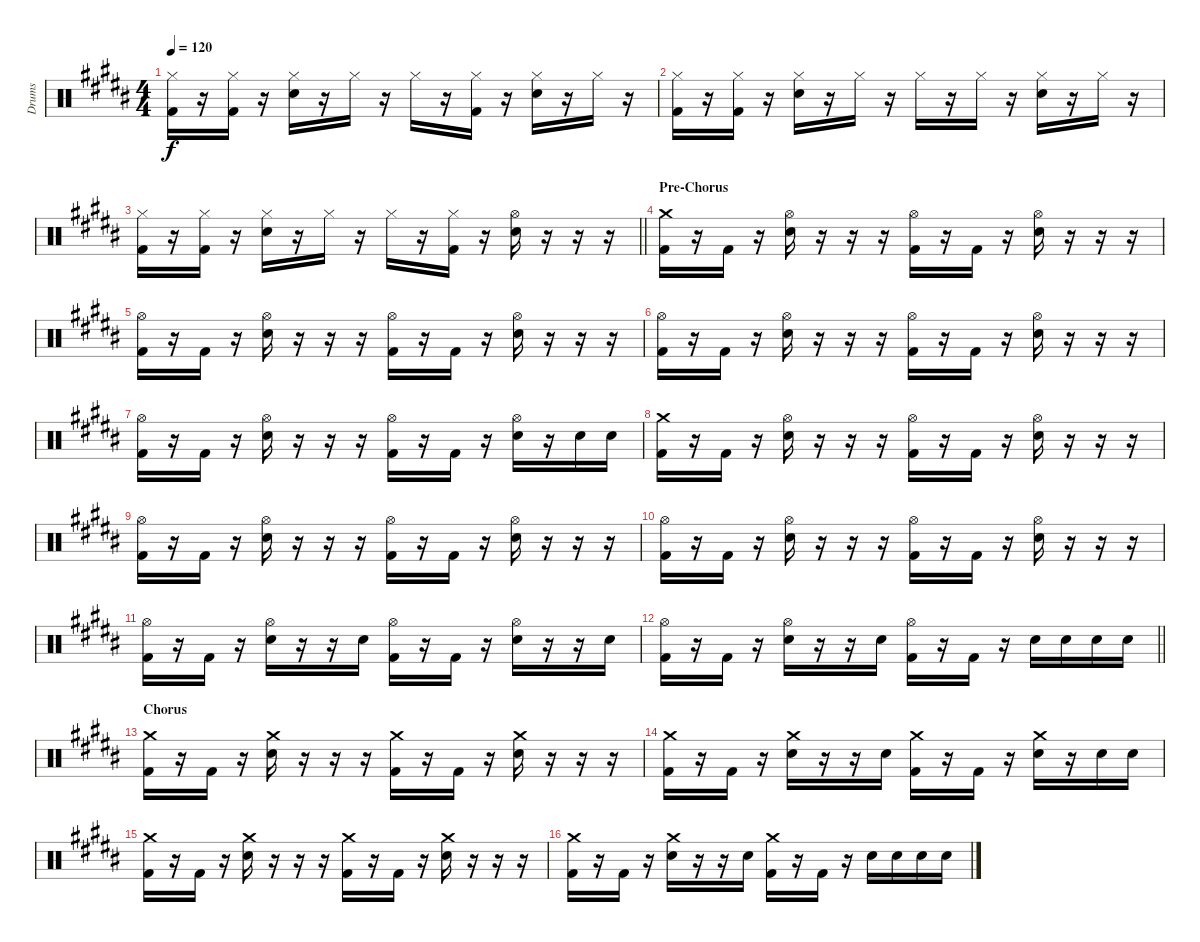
\track ("Drums" "Drums") {instrument percussion}
\staff {score}
\articulation defaults
\ts (4 4)
\tempo 120
\clef neutral
\ks b
("Hi-Hat (closed)" "Kick (hit) 2").16{dy f} r.16 ("Hi-Hat (closed)" "Kick (hit) 2").16 r.16 ("Hi-Hat (closed)" "Snare (hit) 2").16 r.16 "Hi-Hat (closed)".16 r.16 "Hi-Hat (closed)".16 r.16 ("Hi-Hat (closed)" "Kick (hit) 2").16 r.16 ("Hi-Hat (closed)" "Snare (hit) 2").16 r.16 "Hi-Hat (closed)".16 r.16 |
("Hi-Hat (closed)" "Kick (hit) 2").16 r.16 ("Hi-Hat (closed)" "Kick (hit) 2").16 r.16 ("Hi-Hat (closed)" "Snare (hit) 2").16 r.16 "Hi-Hat (closed)".16 r.16 "Hi-Hat (closed)".16 r.16 "Hi-Hat (closed)".16 r.16 ("Hi-Hat (closed)" "Snare (hit) 2").16 r.16 "Hi-Hat (closed)".16 r.16 |
\barLineRight lightlight
("Hi-Hat (closed)" "Kick (hit) 2").16 r.16 ("Hi-Hat (closed)" "Kick (hit) 2").16 r.16 ("Hi-Hat (closed)" "Snare (hit) 2").16 r.16 "Hi-Hat (closed)".16 r.16 "Hi-Hat (closed)".16 r.16 ("Hi-Hat (closed)" "Kick (hit) 2").16 r.16 ("Hi-Hat (open)" "Snare (hit) 2").16 r.16 r.16 r.16 |
\section ("" "Pre-Chorus")
("Crash medium (hit)" "Kick (hit) 2").16 r.16 "Kick (hit) 2".16 r.16 ("Hi-Hat (open)" "Snare (hit) 2").16 r.16 r.16 r.16 ("Hi-Hat (open)" "Kick (hit) 2").16 r.16 "Kick (hit) 2".16 r.16 ("Hi-Hat (open)" "Snare (hit) 2").16 r.16 r.16 r.16 |
("Hi-Hat (open)" "Kick (hit) 2").16 r.16 "Kick (hit) 2".16 r.16 ("Hi-Hat (open)" "Snare (hit) 2").16 r.16 r.16 r.16 ("Hi-Hat (open)" "Kick (hit) 2").16 r.16 "Kick (hit) 2".16 r.16 ("Hi-Hat (open)" "Snare (hit) 2").16 r.16 r.16 r.16 |
("Hi-Hat (open)" "Kick (hit) 2").16 r.16 "Kick (hit) 2".16 r.16 ("Hi-Hat (open)" "Snare (hit) 2").16 r.16 r.16 r.16 ("Hi-Hat (open)" "Kick (hit) 2").16 r.16 "Kick (hit) 2".16 r.16 ("Hi-Hat (open)" "Snare (hit) 2").16 r.16 r.16 r.16 |
("Hi-Hat (open)" "Kick (hit) 2").16 r.16 "Kick (hit) 2".16 r.16 ("Hi-Hat (open)" "Snare (hit) 2").16 r.16 r.16 r.16 ("Hi-Hat (open)" "Kick (hit) 2").16 r.16 "Kick (hit) 2".16 r.16 ("Hi-Hat (open)" "Snare (hit) 2").16 r.16 "Snare (hit) 2".16 "Snare (hit) 2".16 |
("Crash medium (hit)" "Kick (hit) 2").16 r.16 "Kick (hit) 2".16 r.16 ("Hi-Hat (open)" "Snare (hit) 2").16 r.16 r.16 r.16 ("Hi-Hat (open)" "Kick (hit) 2").16 r.16 "Kick (hit) 2".16 r.16 ("Hi-Hat (open)" "Snare (hit) 2").16 r.16 r.16 r.16 |
("Hi-Hat (open)" "Kick (hit) 2").16 r.16 "Kick (hit) 2".16 r.16 ("Hi-Hat (open)" "Snare (hit) 2").16 r.16 r.16 r.16 ("Hi-Hat (open)" "Kick (hit) 2").16 r.16 "Kick (hit) 2".16 r.16 ("Hi-Hat (open)" "Snare (hit) 2").16 r.16 r.16 r.16 |
("Hi-Hat (open)" "Kick (hit) 2").16 r.16 "Kick (hit) 2".16 r.16 ("Hi-Hat (open)" "Snare (hit) 2").16 r.16 r.16 r.16 ("Hi-Hat (open)" "Kick (hit) 2").16 r.16 "Kick (hit) 2".16 r.16 ("Hi-Hat (open)" "Snare (hit) 2").16 r.16 r.16 r.16 |
("Hi-Hat (open)" "Kick (hit) 2").16 r.16 "Kick (hit) 2".16 r.16 ("Hi-Hat (open)" "Snare (hit) 2").16 r.16 r.16 "Snare (hit) 2".16 ("Hi-Hat (open)" "Kick (hit) 2").16 r.16 "Kick (hit) 2".16 r.16 ("Hi-Hat (open)" "Snare (hit) 2").16 r.16 r.16 "Snare (hit) 2".16 |
\barLineRight lightlight
("Hi-Hat (open)" "Kick (hit) 2").16 r.16 "Kick (hit) 2".16 r.16 ("Hi-Hat (open)" "Snare (hit) 2").16 r.16 r.16 "Snare (hit) 2".16 ("Hi-Hat (open)" "Kick (hit) 2").16 r.16 "Kick (hit) 2".16 r.16 "Snare (hit) 2".16 "Snare (hit) 2".16 "Snare (hit) 2".16 "Snare (hit) 2".16 |
\section ("" "Chorus")
("Crash medium (hit)" "Kick (hit) 2").16 r.16 "Kick (hit) 2".16 r.16 ("Crash medium (hit)" "Snare (hit) 2").16 r.16 r.16 r.16 ("Crash medium (hit)" "Kick (hit) 2").16 r.16 "Kick (hit) 2".16 r.16 ("Crash medium (hit)" "Snare (hit) 2").16 r.16 r.16 r.16 |
("Crash medium (hit)" "Kick (hit) 2").16 r.16 "Kick (hit) 2".16 r.16 ("Crash medium (hit)" "Snare (hit) 2").16 r.16 r.16 "Snare (hit) 2".16 ("Crash medium (hit)" "Kick (hit) 2").16 r.16 "Kick (hit) 2".16 r.16 ("Crash medium (hit)" "Snare (hit) 2").16 r.16 "Snare (hit) 2".16 "Snare (hit) 2".16 |
("Crash medium (hit)" "Kick (hit) 2").16 r.16 "Kick (hit) 2".16 r.16 ("Crash medium (hit)" "Snare (hit) 2").16 r.16 r.16 r.16 ("Crash medium (hit)" "Kick (hit) 2").16 r.16 "Kick (hit) 2".16 r.16 ("Crash medium (hit)" "Snare (hit) 2").16 r.16 r.16 r.16 |
("Crash medium (hit)" "Kick (hit) 2").16 r.16 "Kick (hit) 2".16 r.16 ("Crash medium (hit)" "Snare (hit) 2").16 r.16 r.16 "Snare (hit) 2".16 ("Crash medium (hit)" "Kick (hit) 2").16 r.16 "Kick (hit) 2".16 r.16 "Snare (hit) 2".16 "Snare (hit) 2".16 "Snare (hit) 2".16 "Snare (hit) 2".16
